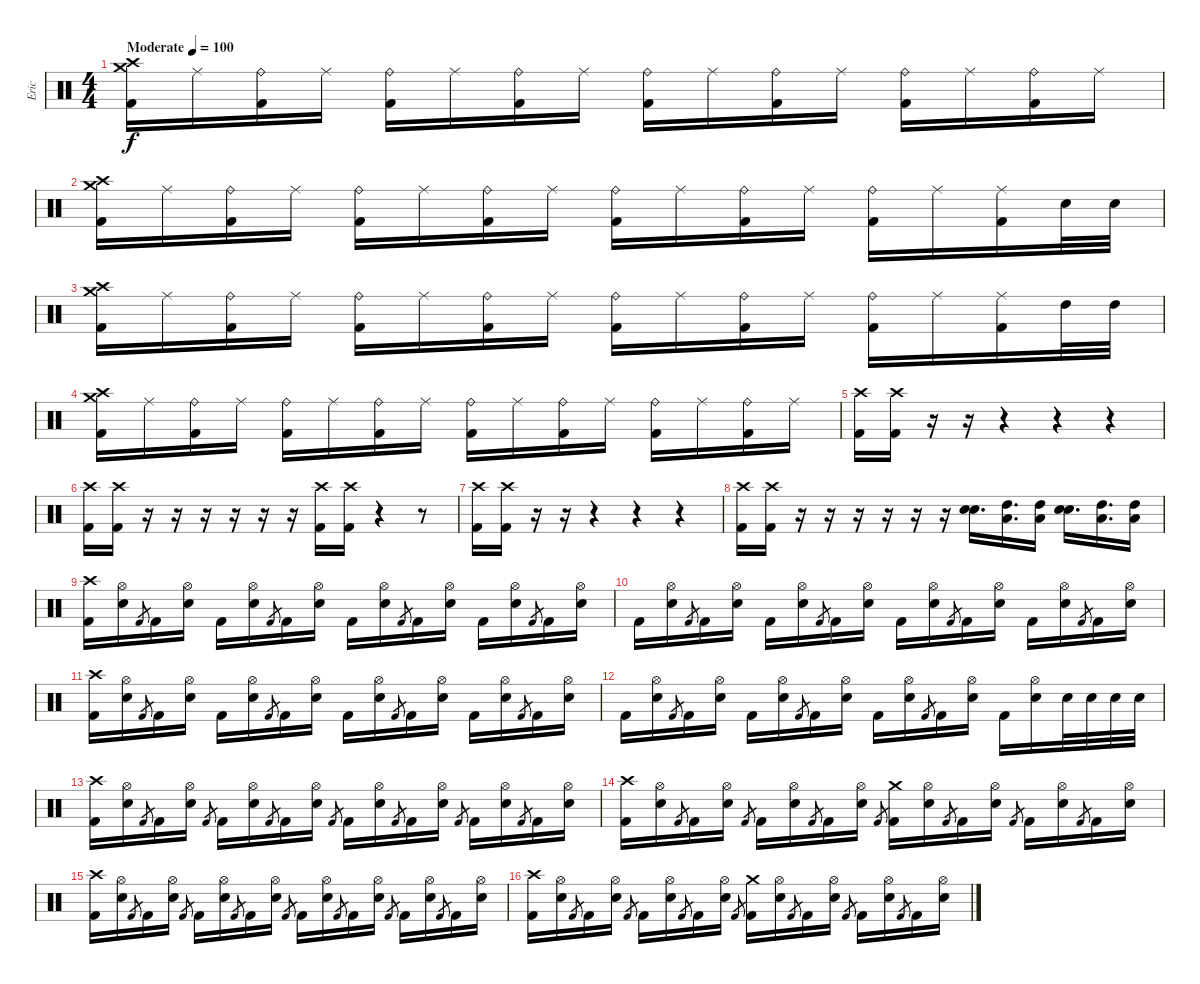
\track ("Eric" "Eric") {instrument percussion}
\staff {score}
\articulation defaults
\ts (4 4)
\tempo (100 "Moderate")
\clef neutral
\ks c
("Crash medium (hit)" "Crash high (hit)" "Kick (hit) 2").16{dy f} "Ride (middle)".16 ("Ride (bell)" "Kick (hit) 2").16 "Ride (middle)".16 ("Ride (bell)" "Kick (hit) 2").16 "Ride (middle)".16 ("Ride (bell)" "Kick (hit) 2").16 "Ride (middle)".16 ("Ride (bell)" "Kick (hit) 2").16 "Ride (middle)".16 ("Ride (bell)" "Kick (hit) 2").16 "Ride (middle)".16 ("Ride (bell)" "Kick (hit) 2").16 "Ride (middle)".16 ("Ride (bell)" "Kick (hit) 2").16 "Ride (middle)".16 |
("Crash medium (hit)" "Crash high (hit)" "Kick (hit) 2").16 "Ride (middle)".16 ("Ride (bell)" "Kick (hit) 2").16 "Ride (middle)".16 ("Ride (bell)" "Kick (hit) 2").16 "Ride (middle)".16 ("Ride (bell)" "Kick (hit) 2").16 "Ride (middle)".16 ("Ride (bell)" "Kick (hit) 2").16 "Ride (middle)".16 ("Ride (bell)" "Kick (hit) 2").16 "Ride (middle)".16 ("Ride (bell)" "Kick (hit) 2").16 "Ride (middle)".16 ("Ride (middle)" "Kick (hit) 2").16 "Electric Snare (hit)".32 "Electric Snare (hit)".32 |
("Crash medium (hit)" "Crash high (hit)" "Kick (hit) 2").16 "Ride (middle)".16 ("Ride (bell)" "Kick (hit) 2").16 "Ride (middle)".16 ("Ride (bell)" "Kick (hit) 2").16 "Ride (middle)".16 ("Ride (bell)" "Kick (hit) 2").16 "Ride (middle)".16 ("Ride (bell)" "Kick (hit) 2").16 "Ride (middle)".16 ("Ride (bell)" "Kick (hit) 2").16 "Ride (middle)".16 ("Ride (bell)" "Kick (hit) 2").16 "Ride (middle)".16 ("Ride (middle)" "Kick (hit) 2").16 "High Tom (hit)".32 "High Tom (hit)".32 |
("Crash medium (hit)" "Crash high (hit)" "Kick (hit) 2").16 "Ride (middle)".16 ("Ride (bell)" "Kick (hit) 2").16 "Ride (middle)".16 ("Ride (bell)" "Kick (hit) 2").16 "Ride (middle)".16 ("Ride (bell)" "Kick (hit) 2").16 "Ride (middle)".16 ("Ride (bell)" "Kick (hit) 2").16 "Ride (middle)".16 ("Ride (bell)" "Kick (hit) 2").16 "Ride (middle)".16 ("Ride (bell)" "Kick (hit) 2").16 "Ride (middle)".16 ("Ride (bell)" "Kick (hit) 2").16 "Ride (middle)".16 |
("Crash high (hit)" "Kick (hit) 2").16 ("Crash high (hit)" "Kick (hit) 2").16 r.16 r.16 r.4 r.4 r.4 |
("Crash high (hit)" "Kick (hit) 2").16 ("Crash high (hit)" "Kick (hit) 2").16 r.16 r.16 r.16 r.16 r.16 r.16 ("Crash high (hit)" "Kick (hit) 2").16 ("Crash high (hit)" "Kick (hit) 2").16 r.4 r.8 |
("Crash high (hit)" "Kick (hit) 2").16 ("Crash high (hit)" "Kick (hit) 2").16 r.16 r.16 r.4 r.4 r.4 |
("Crash high (hit)" "Kick (hit) 2").16 ("Crash high (hit)" "Kick (hit) 2").16 r.16 r.16 r.16 r.16 r.16 r.16 ("Electric Snare (hit)" "Electric Snare (hit)").16{d} ("Low Tom (hit)" "High Tom (hit)").16{d} ("Low Tom (hit)" "High Tom (hit)").16 ("Electric Snare (hit)" "Electric Snare (hit)").16{d} ("Low Tom (hit)" "High Tom (hit)").16{d} ("Low Tom (hit)" "High Tom (hit)").16 |
("Crash high (hit)" "Kick (hit) 2").16 ("Hi-Hat (open)" "Electric Snare (hit)").16 "Kick (hit) 2".8{gr} "Kick (hit) 2".16 ("Hi-Hat (open)" "Electric Snare (hit)").16 "Kick (hit) 2".16 ("Hi-Hat (open)" "Electric Snare (hit)").16 "Kick (hit) 2".8{gr} "Kick (hit) 2".16 ("Hi-Hat (open)" "Electric Snare (hit)").16 "Kick (hit) 2".16 ("Hi-Hat (open)" "Electric Snare (hit)").16 "Kick (hit) 2".8{gr} "Kick (hit) 2".16 ("Hi-Hat (open)" "Electric Snare (hit)").16 "Kick (hit) 2".16 ("Hi-Hat (open)" "Electric Snare (hit)").16 "Kick (hit) 2".8{gr} "Kick (hit) 2".16 ("Hi-Hat (open)" "Electric Snare (hit)").16 |
"Kick (hit) 2".16 ("Hi-Hat (open)" "Electric Snare (hit)").16 "Kick (hit) 2".8{gr} "Kick (hit) 2".16 ("Hi-Hat (open)" "Electric Snare (hit)").16 "Kick (hit) 2".16 ("Hi-Hat (open)" "Electric Snare (hit)").16 "Kick (hit) 2".8{gr} "Kick (hit) 2".16 ("Hi-Hat (open)" "Electric Snare (hit)").16 "Kick (hit) 2".16 ("Hi-Hat (open)" "Electric Snare (hit)").16 "Kick (hit) 2".8{gr} "Kick (hit) 2".16 ("Hi-Hat (open)" "Electric Snare (hit)").16 "Kick (hit) 2".16 ("Hi-Hat (open)" "Electric Snare (hit)").16 "Kick (hit) 2".8{gr} "Kick (hit) 2".16 ("Hi-Hat (open)" "Electric Snare (hit)").16 |
("Crash high (hit)" "Kick (hit) 2").16 ("Hi-Hat (open)" "Electric Snare (hit)").16 "Kick (hit) 2".8{gr} "Kick (hit) 2".16 ("Hi-Hat (open)" "Electric Snare (hit)").16 "Kick (hit) 2".16 ("Hi-Hat (open)" "Electric Snare (hit)").16 "Kick (hit) 2".8{gr} "Kick (hit) 2".16 ("Hi-Hat (open)" "Electric Snare (hit)").16 "Kick (hit) 2".16 ("Hi-Hat (open)" "Electric Snare (hit)").16 "Kick (hit) 2".8{gr} "Kick (hit) 2".16 ("Hi-Hat (open)" "Electric Snare (hit)").16 "Kick (hit) 2".16 ("Hi-Hat (open)" "Electric Snare (hit)").16 "Kick (hit) 2".8{gr} "Kick (hit) 2".16 ("Hi-Hat (open)" "Electric Snare (hit)").16 |
"Kick (hit) 2".16 ("Hi-Hat (open)" "Electric Snare (hit)").16 "Kick (hit) 2".8{gr} "Kick (hit) 2".16 ("Hi-Hat (open)" "Electric Snare (hit)").16 "Kick (hit) 2".16 ("Hi-Hat (open)" "Electric Snare (hit)").16 "Kick (hit) 2".8{gr} "Kick (hit) 2".16 ("Hi-Hat (open)" "Electric Snare (hit)").16 "Kick (hit) 2".16 ("Hi-Hat (open)" "Electric Snare (hit)").16 "Kick (hit) 2".8{gr} "Kick (hit) 2".16 ("Hi-Hat (open)" "Electric Snare (hit)").16 "Kick (hit) 2".16 ("Hi-Hat (open)" "Electric Snare (hit)").16 "Electric Snare (hit)".32 "Electric Snare (hit)".32 "Electric Snare (hit)".32 "Electric Snare (hit)".32 |
("Crash high (hit)" "Kick (hit) 2").16 ("Hi-Hat (open)" "Electric Snare (hit)").16 "Kick (hit) 2".8{gr} "Kick (hit) 2".16 ("Hi-Hat (open)" "Electric Snare (hit)").16 "Kick (hit) 2".8{gr} "Kick (hit) 2".16 ("Hi-Hat (open)" "Electric Snare (hit)").16 "Kick (hit) 2".8{gr} "Kick (hit) 2".16 ("Hi-Hat (open)" "Electric Snare (hit)").16 "Kick (hit) 2".8{gr} "Kick (hit) 2".16 ("Hi-Hat (open)" "Electric Snare (hit)").16 "Kick (hit) 2".8{gr} "Kick (hit) 2".16 ("Hi-Hat (open)" "Electric Snare (hit)").16 "Kick (hit) 2".8{gr} "Kick (hit) 2".16 ("Hi-Hat (open)" "Electric Snare (hit)").16 "Kick (hit) 2".8{gr} "Kick (hit) 2".16 ("Hi-Hat (open)" "Electric Snare (hit)").16 |
("Crash high (hit)" "Kick (hit) 2").16 ("Hi-Hat (open)" "Electric Snare (hit)").16 "Kick (hit) 2".8{gr} "Kick (hit) 2".16 ("Hi-Hat (open)" "Electric Snare (hit)").16 "Kick (hit) 2".8{gr} "Kick (hit) 2".16 ("Hi-Hat (open)" "Electric Snare (hit)").16 "Kick (hit) 2".8{gr} "Kick (hit) 2".16 ("Hi-Hat (open)" "Electric Snare (hit)").16 "Kick (hit) 2".8{gr} ("Crash medium (hit)" "Kick (hit) 2").16 ("Hi-Hat (open)" "Electric Snare (hit)").16 "Kick (hit) 2".8{gr} "Kick (hit) 2".16 ("Hi-Hat (open)" "Electric Snare (hit)").16 "Kick (hit) 2".8{gr} "Kick (hit) 2".16 ("Hi-Hat (open)" "Electric Snare (hit)").16 "Kick (hit) 2".8{gr} "Kick (hit) 2".16 ("Hi-Hat (open)" "Electric Snare (hit)").16 |
("Crash high (hit)" "Kick (hit) 2").16 ("Hi-Hat (open)" "Electric Snare (hit)").16 "Kick (hit) 2".8{gr} "Kick (hit) 2".16 ("Hi-Hat (open)" "Electric Snare (hit)").16 "Kick (hit) 2".8{gr} "Kick (hit) 2".16 ("Hi-Hat (open)" "Electric Snare (hit)").16 "Kick (hit) 2".8{gr} "Kick (hit) 2".16 ("Hi-Hat (open)" "Electric Snare (hit)").16 "Kick (hit) 2".8{gr} "Kick (hit) 2".16 ("Hi-Hat (open)" "Electric Snare (hit)").16 "Kick (hit) 2".8{gr} "Kick (hit) 2".16 ("Hi-Hat (open)" "Electric Snare (hit)").16 "Kick (hit) 2".8{gr} "Kick (hit) 2".16 ("Hi-Hat (open)" "Electric Snare (hit)").16 "Kick (hit) 2".8{gr} "Kick (hit) 2".16 ("Hi-Hat (open)" "Electric Snare (hit)").16 |
("Crash high (hit)" "Kick (hit) 2").16 ("Hi-Hat (open)" "Electric Snare (hit)").16 "Kick (hit) 2".8{gr} "Kick (hit) 2".16 ("Hi-Hat (open)" "Electric Snare (hit)").16 "Kick (hit) 2".8{gr} "Kick (hit) 2".16 ("Hi-Hat (open)" "Electric Snare (hit)").16 "Kick (hit) 2".8{gr} "Kick (hit) 2".16 ("Hi-Hat (open)" "Electric Snare (hit)").16 "Kick (hit) 2".8{gr} ("Crash medium (hit)" "Kick (hit) 2").16 ("Hi-Hat (open)" "Electric Snare (hit)").16 "Kick (hit) 2".8{gr} "Kick (hit) 2".16 ("Hi-Hat (open)" "Electric Snare (hit)").16 "Kick (hit) 2".8{gr} "Kick (hit) 2".16 ("Hi-Hat (open)" "Electric Snare (hit)").16 "Kick (hit) 2".8{gr} "Kick (hit) 2".16 ("Hi-Hat (open)" "Electric Snare (hit)").16
